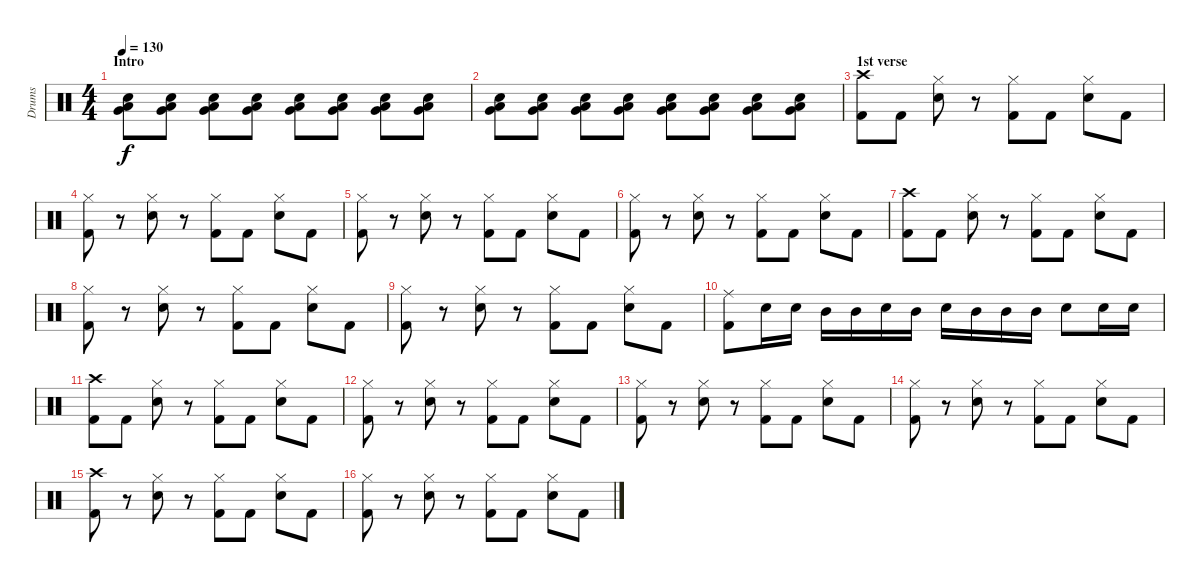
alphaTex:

\track ("Drums" "Drums") {instrument percussion}
\staff {score}
\articulation defaults
\ts (4 4)
\section ("" "Intro")
\tempo 130
\clef neutral
\ks c
("Snare (hit) 2" "Very Low Tom (hit)" "Low Tom (hit)").8{dy f} ("Snare (hit) 2" "Very Low Tom (hit)" "Low Tom (hit)").8 ("Snare (hit) 2" "Very Low Tom (hit)" "Low Tom (hit)").8 ("Snare (hit) 2" "Very Low Tom (hit)" "Low Tom (hit)").8 ("Snare (hit) 2" "Very Low Tom (hit)" "Low Tom (hit)").8 ("Snare (hit) 2" "Very Low Tom (hit)" "Low Tom (hit)").8 ("Snare (hit) 2" "Very Low Tom (hit)" "Low Tom (hit)").8 ("Snare (hit) 2" "Very Low Tom (hit)" "Low Tom (hit)").8 |
("Snare (hit) 2" "Very Low Tom (hit)" "Low Tom (hit)").8 ("Snare (hit) 2" "Very Low Tom (hit)" "Low Tom (hit)").8 ("Snare (hit) 2" "Very Low Tom (hit)" "Low Tom (hit)").8 ("Snare (hit) 2" "Very Low Tom (hit)" "Low Tom (hit)").8 ("Snare (hit) 2" "Very Low Tom (hit)" "Low Tom (hit)").8 ("Snare (hit) 2" "Very Low Tom (hit)" "Low Tom (hit)").8 ("Snare (hit) 2" "Very Low Tom (hit)" "Low Tom (hit)").8 ("Snare (hit) 2" "Very Low Tom (hit)" "Low Tom (hit)").8 |
\section ("" "1st verse")
("Crash high (hit)" "Kick (hit) 2").8 "Kick (hit) 2".8 ("Hi-Hat (closed)" "Electric Snare (hit)").8 r.8 ("Hi-Hat (closed)" "Kick (hit) 2").8 "Kick (hit) 2".8 ("Hi-Hat (closed)" "Electric Snare (hit)").8 "Kick (hit) 2".8 |
("Hi-Hat (closed)" "Kick (hit) 2").8 r.8 ("Hi-Hat (closed)" "Electric Snare (hit)").8 r.8 ("Hi-Hat (closed)" "Kick (hit) 2").8 "Kick (hit) 2".8 ("Hi-Hat (closed)" "Electric Snare (hit)").8 "Kick (hit) 2".8 |
("Hi-Hat (closed)" "Kick (hit) 2").8 r.8 ("Hi-Hat (closed)" "Electric Snare (hit)").8 r.8 ("Hi-Hat (closed)" "Kick (hit) 2").8 "Kick (hit) 2".8 ("Hi-Hat (closed)" "Electric Snare (hit)").8 "Kick (hit) 2".8 |
("Hi-Hat (closed)" "Kick (hit) 2").8 r.8 ("Hi-Hat (closed)" "Electric Snare (hit)").8 r.8 ("Hi-Hat (closed)" "Kick (hit) 2").8 "Kick (hit) 2".8 ("Hi-Hat (closed)" "Electric Snare (hit)").8 "Kick (hit) 2".8 |
("Crash high (hit)" "Kick (hit) 2").8 "Kick (hit) 2".8 ("Hi-Hat (closed)" "Electric Snare (hit)").8 r.8 ("Hi-Hat (closed)" "Kick (hit) 2").8 "Kick (hit) 2".8 ("Hi-Hat (closed)" "Electric Snare (hit)").8 "Kick (hit) 2".8 |
("Hi-Hat (closed)" "Kick (hit) 2").8 r.8 ("Hi-Hat (closed)" "Electric Snare (hit)").8 r.8 ("Hi-Hat (closed)" "Kick (hit) 2").8 "Kick (hit) 2".8 ("Hi-Hat (closed)" "Electric Snare (hit)").8 "Kick (hit) 2".8 |
("Hi-Hat (closed)" "Kick (hit) 2").8 r.8 ("Hi-Hat (closed)" "Electric Snare (hit)").8 r.8 ("Hi-Hat (closed)" "Kick (hit) 2").8 "Kick (hit) 2".8 ("Hi-Hat (closed)" "Electric Snare (hit)").8 "Kick (hit) 2".8 |
("Ride (middle)" "Kick (hit) 2").8 "Electric Snare (hit)".16 "Electric Snare (hit)".16 "Mid Tom (hit)".16 "Mid Tom (hit)".16 "Electric Snare (hit)".16 "Mid Tom (hit)".16 "Electric Snare (hit)".16 "Mid Tom (hit)".16 "Mid Tom (hit)".16 "Mid Tom (hit)".16 "Electric Snare (hit)".8 "Electric Snare (hit)".16 "Electric Snare (hit)".16 |
("Crash high (hit)" "Kick (hit) 2").8 "Kick (hit) 2".8 ("Hi-Hat (closed)" "Electric Snare (hit)").8 r.8 ("Hi-Hat (closed)" "Kick (hit) 2").8 "Kick (hit) 2".8 ("Hi-Hat (closed)" "Electric Snare (hit)").8 "Kick (hit) 2".8 |
("Hi-Hat (closed)" "Kick (hit) 2").8 r.8 ("Hi-Hat (closed)" "Electric Snare (hit)").8 r.8 ("Hi-Hat (closed)" "Kick (hit) 2").8 "Kick (hit) 2".8 ("Hi-Hat (closed)" "Electric Snare (hit)").8 "Kick (hit) 2".8 |
("Hi-Hat (closed)" "Kick (hit) 2").8 r.8 ("Hi-Hat (closed)" "Electric Snare (hit)").8 r.8 ("Hi-Hat (closed)" "Kick (hit) 2").8 "Kick (hit) 2".8 ("Hi-Hat (closed)" "Electric Snare (hit)").8 "Kick (hit) 2".8 |
("Hi-Hat (closed)" "Kick (hit) 2").8 r.8 ("Hi-Hat (closed)" "Electric Snare (hit)").8 r.8 ("Hi-Hat (closed)" "Kick (hit) 2").8 "Kick (hit) 2".8 ("Hi-Hat (closed)" "Electric Snare (hit)").8 "Kick (hit) 2".8 |
("Crash high (hit)" "Kick (hit) 2").8 r.8 ("Hi-Hat (closed)" "Electric Snare (hit)").8 r.8 ("Hi-Hat (closed)" "Kick (hit) 2").8 "Kick (hit) 2".8 ("Hi-Hat (closed)" "Electric Snare (hit)").8 "Kick (hit) 2".8 |
("Hi-Hat (closed)" "Kick (hit) 2").8 r.8 ("Hi-Hat (closed)" "Electric Snare (hit)").8 r.8 ("Hi-Hat (closed)" "Kick (hit) 2").8 "Kick (hit) 2".8 ("Hi-Hat (closed)" "Electric Snare (hit)").8 "Kick (hit) 2".8
